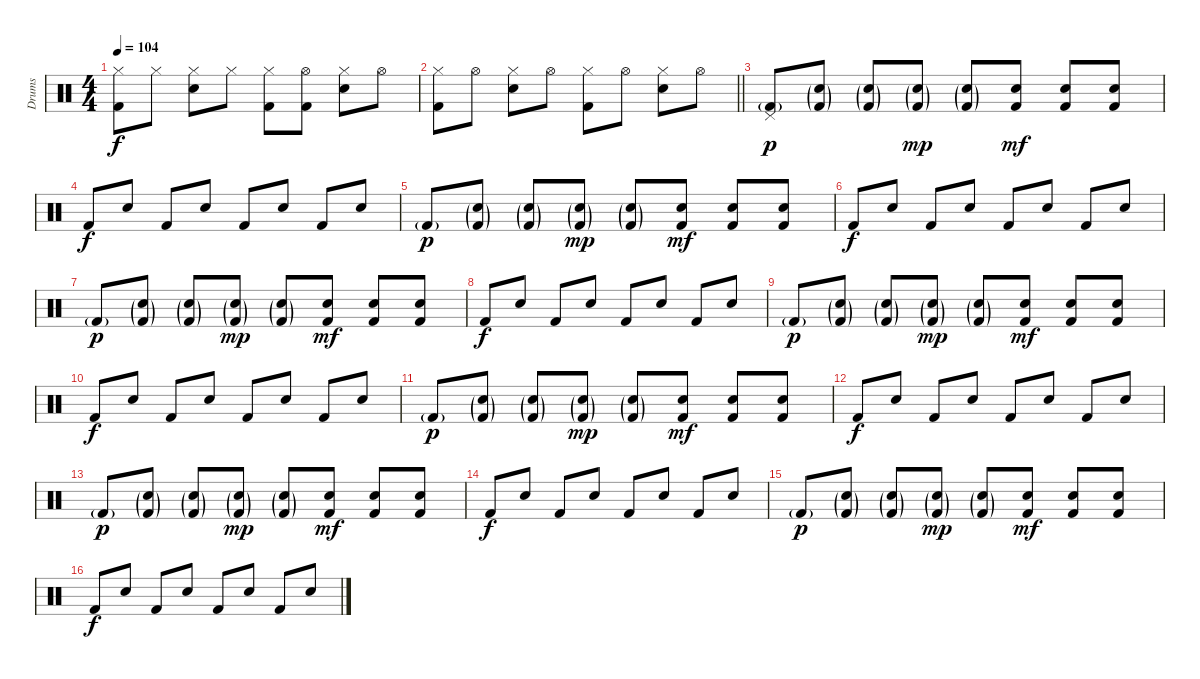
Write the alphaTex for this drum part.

\track ("Drums" "Drums") {instrument percussion}
\staff {score}
\articulation defaults
\ts (4 4)
\tempo 104
\clef neutral
\ks c
("Hi-Hat (closed)" "Kick (hit) 2").8{dy f} "Hi-Hat (closed)".8 ("Hi-Hat (closed)" "Snare (hit) 2").8 "Hi-Hat (closed)".8 ("Hi-Hat (closed)" "Kick (hit) 2").8 ("Hi-Hat (open)" "Kick (hit) 2").8 ("Hi-Hat (closed)" "Snare (hit) 2").8 "Hi-Hat (open)".8 |
\barLineRight lightlight
("Hi-Hat (closed)" "Kick (hit) 2").8 "Hi-Hat (open)".8 ("Hi-Hat (closed)" "Snare (hit) 2").8 "Hi-Hat (open)".8 ("Hi-Hat (closed)" "Kick (hit) 2").8 "Hi-Hat (open)".8 ("Hi-Hat (closed)" "Snare (hit) 2").8 "Hi-Hat (open)".8 |
\section ("" "")
("Pedal Hi-Hat (hit)" "Kick (hit) 2"{g}).8{dy p} ("Snare (hit) 2"{g} "Kick (hit) 2"{g}).8 ("Snare (hit) 2"{g} "Kick (hit) 2"{g}).8 ("Snare (hit) 2"{g} "Kick (hit) 2"{g}).8{dy mp} ("Snare (hit) 2"{g} "Kick (hit) 2"{g}).8 ("Snare (hit) 2" "Kick (hit) 2").8{dy mf} ("Snare (hit) 2" "Kick (hit) 2").8 ("Snare (hit) 2" "Kick (hit) 2").8 |
"Kick (hit) 2".8{dy f} "Snare (hit) 2".8 "Kick (hit) 2".8 "Snare (hit) 2".8 "Kick (hit) 2".8 "Snare (hit) 2".8 "Kick (hit) 2".8 "Snare (hit) 2".8 |
"Kick (hit) 2"{g}.8{dy p} ("Snare (hit) 2"{g} "Kick (hit) 2"{g}).8 ("Snare (hit) 2"{g} "Kick (hit) 2"{g}).8 ("Snare (hit) 2"{g} "Kick (hit) 2"{g}).8{dy mp} ("Snare (hit) 2"{g} "Kick (hit) 2"{g}).8 ("Snare (hit) 2" "Kick (hit) 2").8{dy mf} ("Snare (hit) 2" "Kick (hit) 2").8 ("Snare (hit) 2" "Kick (hit) 2").8 |
"Kick (hit) 2".8{dy f} "Snare (hit) 2".8 "Kick (hit) 2".8 "Snare (hit) 2".8 "Kick (hit) 2".8 "Snare (hit) 2".8 "Kick (hit) 2".8 "Snare (hit) 2".8 |
"Kick (hit) 2"{g}.8{dy p} ("Snare (hit) 2"{g} "Kick (hit) 2"{g}).8 ("Snare (hit) 2"{g} "Kick (hit) 2"{g}).8 ("Snare (hit) 2"{g} "Kick (hit) 2"{g}).8{dy mp} ("Snare (hit) 2"{g} "Kick (hit) 2"{g}).8 ("Snare (hit) 2" "Kick (hit) 2").8{dy mf} ("Snare (hit) 2" "Kick (hit) 2").8 ("Snare (hit) 2" "Kick (hit) 2").8 |
"Kick (hit) 2".8{dy f} "Snare (hit) 2".8 "Kick (hit) 2".8 "Snare (hit) 2".8 "Kick (hit) 2".8 "Snare (hit) 2".8 "Kick (hit) 2".8 "Snare (hit) 2".8 |
"Kick (hit) 2"{g}.8{dy p} ("Snare (hit) 2"{g} "Kick (hit) 2"{g}).8 ("Snare (hit) 2"{g} "Kick (hit) 2"{g}).8 ("Snare (hit) 2"{g} "Kick (hit) 2"{g}).8{dy mp} ("Snare (hit) 2"{g} "Kick (hit) 2"{g}).8 ("Snare (hit) 2" "Kick (hit) 2").8{dy mf} ("Snare (hit) 2" "Kick (hit) 2").8 ("Snare (hit) 2" "Kick (hit) 2").8 |
"Kick (hit) 2".8{dy f} "Snare (hit) 2".8 "Kick (hit) 2".8 "Snare (hit) 2".8 "Kick (hit) 2".8 "Snare (hit) 2".8 "Kick (hit) 2".8 "Snare (hit) 2".8 |
"Kick (hit) 2"{g}.8{dy p} ("Snare (hit) 2"{g} "Kick (hit) 2"{g}).8 ("Snare (hit) 2"{g} "Kick (hit) 2"{g}).8 ("Snare (hit) 2"{g} "Kick (hit) 2"{g}).8{dy mp} ("Snare (hit) 2"{g} "Kick (hit) 2"{g}).8 ("Snare (hit) 2" "Kick (hit) 2").8{dy mf} ("Snare (hit) 2" "Kick (hit) 2").8 ("Snare (hit) 2" "Kick (hit) 2").8 |
"Kick (hit) 2".8{dy f} "Snare (hit) 2".8 "Kick (hit) 2".8 "Snare (hit) 2".8 "Kick (hit) 2".8 "Snare (hit) 2".8 "Kick (hit) 2".8 "Snare (hit) 2".8 |
"Kick (hit) 2"{g}.8{dy p} ("Snare (hit) 2"{g} "Kick (hit) 2"{g}).8 ("Snare (hit) 2"{g} "Kick (hit) 2"{g}).8 ("Snare (hit) 2"{g} "Kick (hit) 2"{g}).8{dy mp} ("Snare (hit) 2"{g} "Kick (hit) 2"{g}).8 ("Snare (hit) 2" "Kick (hit) 2").8{dy mf} ("Snare (hit) 2" "Kick (hit) 2").8 ("Snare (hit) 2" "Kick (hit) 2").8 |
"Kick (hit) 2".8{dy f} "Snare (hit) 2".8 "Kick (hit) 2".8 "Snare (hit) 2".8 "Kick (hit) 2".8 "Snare (hit) 2".8 "Kick (hit) 2".8 "Snare (hit) 2".8 |
"Kick (hit) 2"{g}.8{dy p} ("Snare (hit) 2"{g} "Kick (hit) 2"{g}).8 ("Snare (hit) 2"{g} "Kick (hit) 2"{g}).8 ("Snare (hit) 2"{g} "Kick (hit) 2"{g}).8{dy mp} ("Snare (hit) 2"{g} "Kick (hit) 2"{g}).8 ("Snare (hit) 2" "Kick (hit) 2").8{dy mf} ("Snare (hit) 2" "Kick (hit) 2").8 ("Snare (hit) 2" "Kick (hit) 2").8 |
"Kick (hit) 2".8{dy f} "Snare (hit) 2".8 "Kick (hit) 2".8 "Snare (hit) 2".8 "Kick (hit) 2".8 "Snare (hit) 2".8 "Kick (hit) 2".8 "Snare (hit) 2".8
